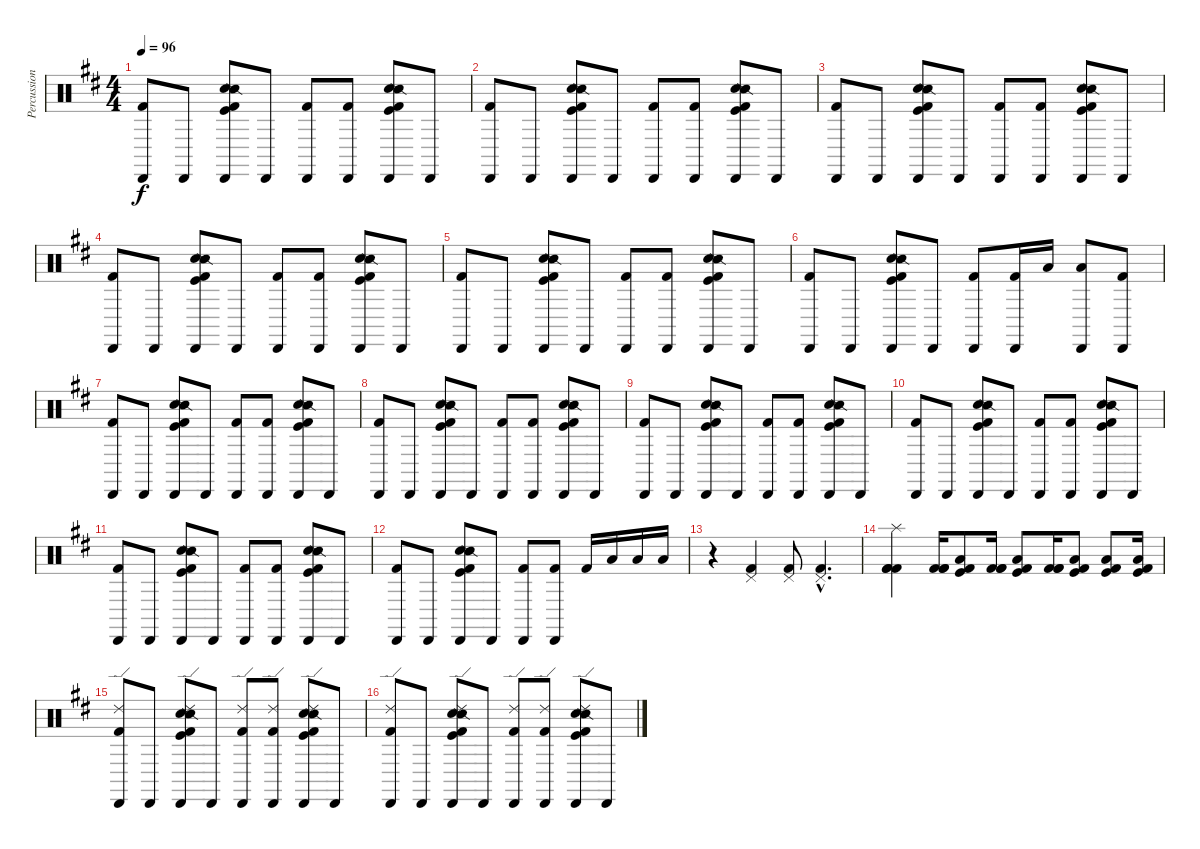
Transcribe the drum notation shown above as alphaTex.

\track ("Percussion" "Percussion") {instrument percussion}
\staff {score}
\articulation defaults
\ts (4 4)
\tempo 96
\clef neutral
\ks bminor
("Kick (hit) 2" "Cabasa (hit)").8{dy f} "Cabasa (hit)".8 ("Hand Clap (hit)" "Snare (side stick) 2" "Kick (hit) 2" "Kick (hit)" "Cabasa (hit)").8 "Cabasa (hit)".8 ("Kick (hit) 2" "Cabasa (hit)").8 ("Kick (hit) 2" "Cabasa (hit)").8 ("Hand Clap (hit)" "Snare (side stick) 2" "Kick (hit) 2" "Kick (hit)" "Cabasa (hit)").8 "Cabasa (hit)".8 |
("Kick (hit) 2" "Cabasa (hit)").8 "Cabasa (hit)".8 ("Hand Clap (hit)" "Snare (side stick) 2" "Kick (hit) 2" "Kick (hit)" "Cabasa (hit)").8 "Cabasa (hit)".8 ("Kick (hit) 2" "Cabasa (hit)").8 ("Kick (hit) 2" "Cabasa (hit)").8 ("Hand Clap (hit)" "Snare (side stick) 2" "Kick (hit) 2" "Kick (hit)" "Cabasa (hit)").8 "Cabasa (hit)".8 |
("Kick (hit) 2" "Cabasa (hit)").8 "Cabasa (hit)".8 ("Hand Clap (hit)" "Snare (side stick) 2" "Kick (hit) 2" "Kick (hit)" "Cabasa (hit)").8 "Cabasa (hit)".8 ("Kick (hit) 2" "Cabasa (hit)").8 ("Kick (hit) 2" "Cabasa (hit)").8 ("Hand Clap (hit)" "Snare (side stick) 2" "Kick (hit) 2" "Kick (hit)" "Cabasa (hit)").8 "Cabasa (hit)".8 |
("Kick (hit) 2" "Cabasa (hit)").8 "Cabasa (hit)".8 ("Hand Clap (hit)" "Snare (side stick) 2" "Kick (hit) 2" "Kick (hit)" "Cabasa (hit)").8 "Cabasa (hit)".8 ("Kick (hit) 2" "Cabasa (hit)").8 ("Kick (hit) 2" "Cabasa (hit)").8 ("Hand Clap (hit)" "Snare (side stick) 2" "Kick (hit) 2" "Kick (hit)" "Cabasa (hit)").8 "Cabasa (hit)".8 |
("Kick (hit) 2" "Cabasa (hit)").8 "Cabasa (hit)".8 ("Hand Clap (hit)" "Snare (side stick) 2" "Kick (hit) 2" "Kick (hit)" "Cabasa (hit)").8 "Cabasa (hit)".8 ("Kick (hit) 2" "Cabasa (hit)").8 ("Kick (hit) 2" "Cabasa (hit)").8 ("Hand Clap (hit)" "Snare (side stick) 2" "Kick (hit) 2" "Kick (hit)" "Cabasa (hit)").8 "Cabasa (hit)".8 |
("Kick (hit) 2" "Cabasa (hit)").8 "Cabasa (hit)".8 ("Hand Clap (hit)" "Snare (side stick) 2" "Kick (hit) 2" "Kick (hit)" "Cabasa (hit)").8 "Cabasa (hit)".8 ("Kick (hit) 2" "Cabasa (hit)").8 ("Kick (hit) 2" "Cabasa (hit)").16 "Low Floor Tom (hit)".16 ("Low Floor Tom (hit)" "Cabasa (hit)").8 ("Kick (hit) 2" "Cabasa (hit)").8 |
("Kick (hit) 2" "Cabasa (hit)").8 "Cabasa (hit)".8 ("Hand Clap (hit)" "Snare (side stick) 2" "Kick (hit) 2" "Kick (hit)" "Cabasa (hit)").8 "Cabasa (hit)".8 ("Kick (hit) 2" "Cabasa (hit)").8 ("Kick (hit) 2" "Cabasa (hit)").8 ("Hand Clap (hit)" "Snare (side stick) 2" "Kick (hit) 2" "Kick (hit)" "Cabasa (hit)").8 "Cabasa (hit)".8 |
("Kick (hit) 2" "Cabasa (hit)").8 "Cabasa (hit)".8 ("Hand Clap (hit)" "Snare (side stick) 2" "Kick (hit) 2" "Kick (hit)" "Cabasa (hit)").8 "Cabasa (hit)".8 ("Kick (hit) 2" "Cabasa (hit)").8 ("Kick (hit) 2" "Cabasa (hit)").8 ("Hand Clap (hit)" "Snare (side stick) 2" "Kick (hit) 2" "Kick (hit)" "Cabasa (hit)").8 "Cabasa (hit)".8 |
("Kick (hit) 2" "Cabasa (hit)").8 "Cabasa (hit)".8 ("Hand Clap (hit)" "Snare (side stick) 2" "Kick (hit) 2" "Kick (hit)" "Cabasa (hit)").8 "Cabasa (hit)".8 ("Kick (hit) 2" "Cabasa (hit)").8 ("Kick (hit) 2" "Cabasa (hit)").8 ("Hand Clap (hit)" "Snare (side stick) 2" "Kick (hit) 2" "Kick (hit)" "Cabasa (hit)").8 "Cabasa (hit)".8 |
("Kick (hit) 2" "Cabasa (hit)").8 "Cabasa (hit)".8 ("Hand Clap (hit)" "Snare (side stick) 2" "Kick (hit) 2" "Kick (hit)" "Cabasa (hit)").8 "Cabasa (hit)".8 ("Kick (hit) 2" "Cabasa (hit)").8 ("Kick (hit) 2" "Cabasa (hit)").8 ("Hand Clap (hit)" "Snare (side stick) 2" "Kick (hit) 2" "Kick (hit)" "Cabasa (hit)").8 "Cabasa (hit)".8 |
("Kick (hit) 2" "Cabasa (hit)").8 "Cabasa (hit)".8 ("Hand Clap (hit)" "Snare (side stick) 2" "Kick (hit) 2" "Kick (hit)" "Cabasa (hit)").8 "Cabasa (hit)".8 ("Kick (hit) 2" "Cabasa (hit)").8 ("Kick (hit) 2" "Cabasa (hit)").8 ("Hand Clap (hit)" "Snare (side stick) 2" "Kick (hit) 2" "Kick (hit)" "Cabasa (hit)").8 "Cabasa (hit)".8 |
("Kick (hit) 2" "Cabasa (hit)").8 "Cabasa (hit)".8 ("Hand Clap (hit)" "Snare (side stick) 2" "Kick (hit) 2" "Kick (hit)" "Cabasa (hit)").8 "Cabasa (hit)".8 ("Kick (hit) 2" "Cabasa (hit)").8 ("Kick (hit) 2" "Cabasa (hit)").8 "Kick (hit) 2".16 "Low Floor Tom (hit)".16 "Low Floor Tom (hit)".16 "Low Floor Tom (hit)".16 |
r.4 ("Kick (hit) 2" "Pedal Hi-Hat (hit)").4 ("Kick (hit) 2" "Pedal Hi-Hat (hit)").8 ("Kick (hit) 2"{hac} "Pedal Hi-Hat (hit)"{hac}).4{d} |
("Kick (hit) 2" "Kick (hit) 2" "Kick (hit) 2" "Splash (hit)").4 ("Kick (hit) 2" "Kick (hit) 2" "Kick (hit) 2").16 ("Low Floor Tom (hit)" "Kick (hit)" "Kick (hit) 2").8 ("Kick (hit) 2" "Kick (hit) 2" "Kick (hit) 2").16 ("Low Floor Tom (hit)" "Kick (hit)" "Kick (hit) 2").8 ("Kick (hit) 2" "Kick (hit) 2" "Kick (hit) 2").16 ("Low Floor Tom (hit)" "Kick (hit) 2" "Kick (hit)").8 ("Low Floor Tom (hit)" "Kick (hit) 2" "Kick (hit)").8 ("Low Floor Tom (hit)" "Kick (hit)" "Kick (hit) 2").16 |
("Kick (hit) 2" "Cabasa (hit)" "Ride (edge) 2").8 "Cabasa (hit)".8 ("Hand Clap (hit)" "Snare (side stick) 2" "Kick (hit) 2" "Kick (hit)" "Cabasa (hit)" "Ride (edge) 2").8 "Cabasa (hit)".8 ("Kick (hit) 2" "Cabasa (hit)" "Ride (edge) 2").8 ("Kick (hit) 2" "Cabasa (hit)" "Ride (edge) 2").8 ("Hand Clap (hit)" "Snare (side stick) 2" "Kick (hit) 2" "Kick (hit)" "Cabasa (hit)" "Ride (edge) 2").8 "Cabasa (hit)".8 |
("Kick (hit) 2" "Cabasa (hit)" "Ride (edge) 2").8 "Cabasa (hit)".8 ("Hand Clap (hit)" "Snare (side stick) 2" "Kick (hit) 2" "Kick (hit)" "Cabasa (hit)" "Ride (edge) 2").8 "Cabasa (hit)".8 ("Kick (hit) 2" "Cabasa (hit)" "Ride (edge) 2").8 ("Kick (hit) 2" "Cabasa (hit)" "Ride (edge) 2").8 ("Hand Clap (hit)" "Snare (side stick) 2" "Kick (hit) 2" "Kick (hit)" "Cabasa (hit)" "Ride (edge) 2").8 "Cabasa (hit)".8
